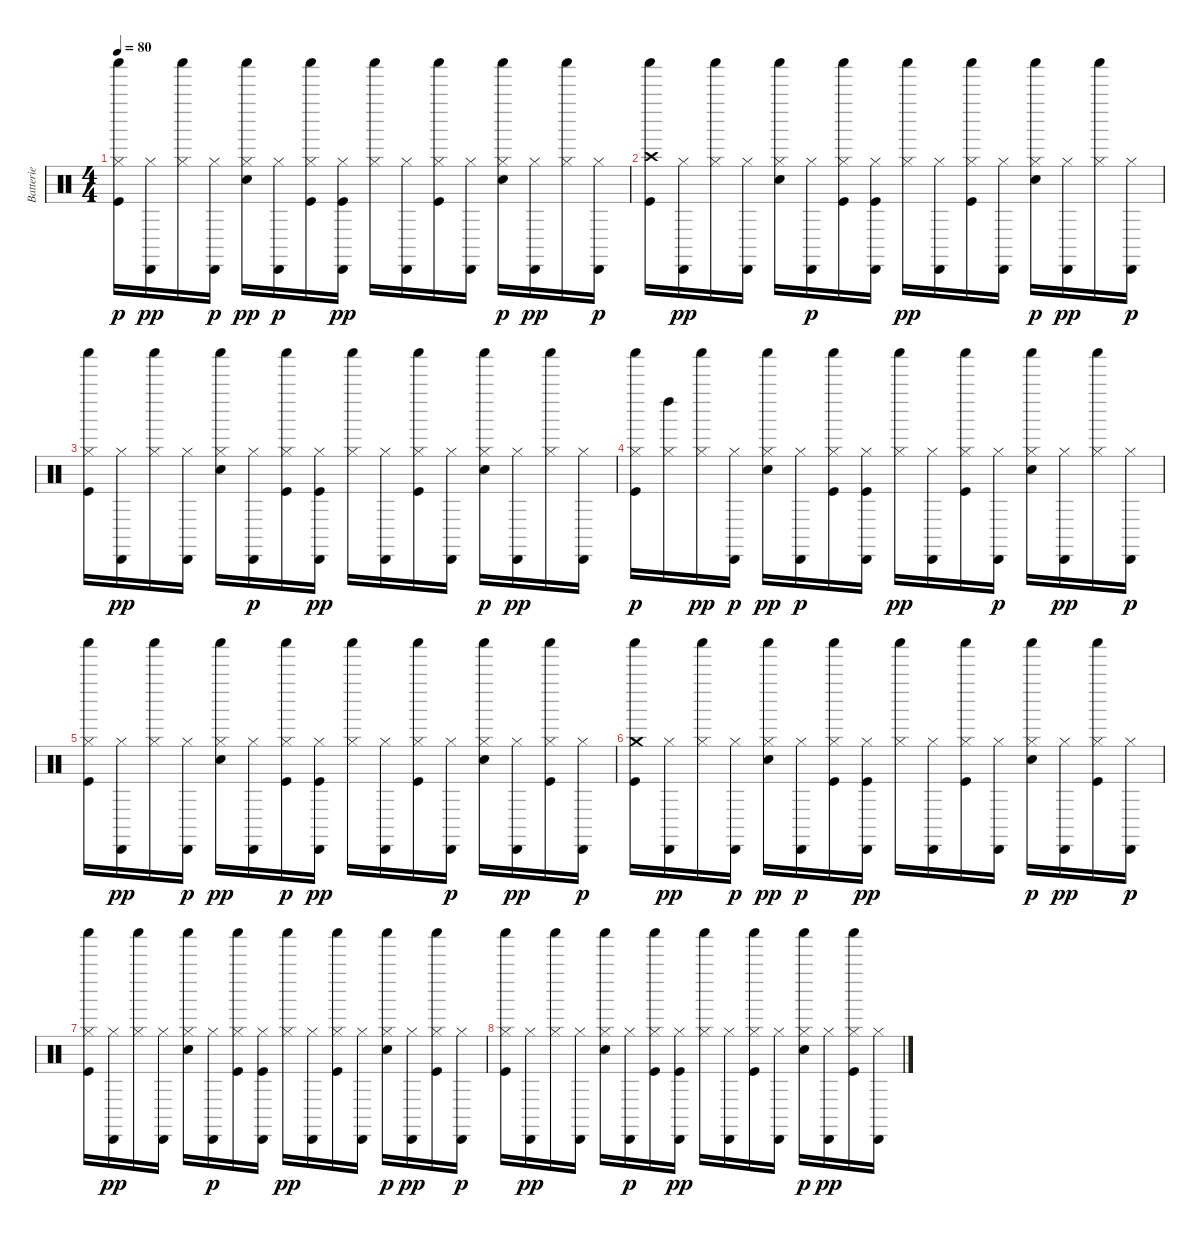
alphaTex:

\track ("Batterie" "Batterie") {instrument percussion}
\staff {score}
\articulation defaults
\ts (4 4)
\tempo 80
\clef neutral
\ks c
("Kick (hit)" "Hi-Hat (closed)" "Shaker (hit)").16{dy p} ("Cabasa (hit)" "Hi-Hat (closed)").16{dy pp} ("Hi-Hat (closed)" "Shaker (hit)").16 ("Cabasa (hit)" "Hi-Hat (closed)").16{dy p} ("Snare (hit) 2" "Hi-Hat (closed)" "Shaker (hit)").16{dy pp} ("Cabasa (hit)" "Hi-Hat (closed)").16{dy p} ("Kick (hit)" "Hi-Hat (closed)" "Shaker (hit)").16 ("Cabasa (hit)" "Kick (hit)" "Hi-Hat (closed)").16{dy pp} ("Hi-Hat (closed)" "Shaker (hit)").16 ("Cabasa (hit)" "Hi-Hat (closed)").16 ("Kick (hit)" "Hi-Hat (closed)" "Shaker (hit)").16 ("Cabasa (hit)" "Hi-Hat (closed)").16 ("Snare (hit) 2" "Hi-Hat (closed)" "Shaker (hit)").16{dy p} ("Cabasa (hit)" "Hi-Hat (closed)").16{dy pp} ("Hi-Hat (closed)" "Shaker (hit)").16 ("Cabasa (hit)" "Hi-Hat (closed)").16{dy p} |
("Kick (hit)" "Crash high (hit)" "Shaker (hit)").16 ("Cabasa (hit)" "Hi-Hat (closed)").16{dy pp} ("Hi-Hat (closed)" "Shaker (hit)").16 ("Cabasa (hit)" "Hi-Hat (closed)").16 ("Snare (hit) 2" "Hi-Hat (closed)" "Shaker (hit)").16 ("Cabasa (hit)" "Hi-Hat (closed)").16{dy p} ("Kick (hit)" "Hi-Hat (closed)" "Shaker (hit)").16 ("Cabasa (hit)" "Kick (hit)" "Hi-Hat (closed)").16 ("Hi-Hat (closed)" "Shaker (hit)").16{dy pp} ("Cabasa (hit)" "Hi-Hat (closed)").16 ("Kick (hit)" "Hi-Hat (closed)" "Shaker (hit)").16 ("Cabasa (hit)" "Hi-Hat (closed)").16 ("Snare (hit) 2" "Hi-Hat (closed)" "Shaker (hit)").16{dy p} ("Cabasa (hit)" "Hi-Hat (closed)").16{dy pp} ("Hi-Hat (closed)" "Shaker (hit)").16 ("Cabasa (hit)" "Hi-Hat (closed)").16{dy p} |
("Kick (hit)" "Hi-Hat (closed)" "Shaker (hit)").16 ("Cabasa (hit)" "Hi-Hat (closed)").16{dy pp} ("Hi-Hat (closed)" "Shaker (hit)").16 ("Cabasa (hit)" "Hi-Hat (closed)").16 ("Snare (hit) 2" "Hi-Hat (closed)" "Shaker (hit)").16 ("Cabasa (hit)" "Hi-Hat (closed)").16{dy p} ("Kick (hit)" "Hi-Hat (closed)" "Shaker (hit)").16 ("Cabasa (hit)" "Kick (hit)" "Hi-Hat (closed)").16{dy pp} ("Hi-Hat (closed)" "Shaker (hit)").16 ("Cabasa (hit)" "Hi-Hat (closed)").16 ("Kick (hit)" "Hi-Hat (closed)" "Shaker (hit)").16 ("Cabasa (hit)" "Hi-Hat (closed)").16 ("Snare (hit) 2" "Hi-Hat (closed)" "Shaker (hit)").16{dy p} ("Cabasa (hit)" "Hi-Hat (closed)").16{dy pp} ("Hi-Hat (closed)" "Shaker (hit)").16 ("Cabasa (hit)" "Hi-Hat (closed)").16 |
("Kick (hit)" "Hi-Hat (closed)" "Shaker (hit)").16{dy p} ("Hi-Hat (closed)" "Left Maraca (hit)").16 ("Hi-Hat (closed)" "Shaker (hit)").16{dy pp} ("Cabasa (hit)" "Hi-Hat (closed)").16{dy p} ("Snare (hit) 2" "Hi-Hat (closed)" "Shaker (hit)").16{dy pp} ("Cabasa (hit)" "Hi-Hat (closed)").16{dy p} ("Kick (hit)" "Hi-Hat (closed)" "Shaker (hit)").16 ("Cabasa (hit)" "Kick (hit)" "Hi-Hat (closed)").16 ("Hi-Hat (closed)" "Shaker (hit)").16{dy pp} ("Cabasa (hit)" "Hi-Hat (closed)").16 ("Kick (hit)" "Hi-Hat (closed)" "Shaker (hit)").16 ("Cabasa (hit)" "Hi-Hat (closed)").16{dy p} ("Snare (hit) 2" "Hi-Hat (closed)" "Shaker (hit)").16 ("Cabasa (hit)" "Hi-Hat (closed)").16{dy pp} ("Hi-Hat (closed)" "Shaker (hit)").16 ("Cabasa (hit)" "Hi-Hat (closed)").16{dy p} |
("Kick (hit)" "Hi-Hat (closed)" "Shaker (hit)").16 ("Cabasa (hit)" "Hi-Hat (closed)").16{dy pp} ("Hi-Hat (closed)" "Shaker (hit)").16 ("Cabasa (hit)" "Hi-Hat (closed)").16{dy p} ("Snare (hit) 2" "Hi-Hat (closed)" "Shaker (hit)").16{dy pp} ("Cabasa (hit)" "Hi-Hat (closed)").16 ("Kick (hit)" "Hi-Hat (closed)" "Shaker (hit)").16{dy p} ("Cabasa (hit)" "Kick (hit)" "Hi-Hat (closed)").16{dy pp} ("Hi-Hat (closed)" "Shaker (hit)").16 ("Cabasa (hit)" "Hi-Hat (closed)").16 ("Kick (hit)" "Hi-Hat (closed)" "Shaker (hit)").16 ("Cabasa (hit)" "Hi-Hat (closed)").16{dy p} ("Snare (hit) 2" "Hi-Hat (closed)" "Shaker (hit)").16 ("Cabasa (hit)" "Hi-Hat (closed)").16{dy pp} ("Kick (hit)" "Hi-Hat (closed)" "Shaker (hit)").16 ("Cabasa (hit)" "Hi-Hat (closed)").16{dy p} |
("Kick (hit)" "Crash medium (hit)" "Shaker (hit)").16 ("Cabasa (hit)" "Hi-Hat (closed)").16{dy pp} ("Hi-Hat (closed)" "Shaker (hit)").16 ("Cabasa (hit)" "Hi-Hat (closed)").16{dy p} ("Snare (hit) 2" "Hi-Hat (closed)" "Shaker (hit)").16{dy pp} ("Cabasa (hit)" "Hi-Hat (closed)").16{dy p} ("Kick (hit)" "Hi-Hat (closed)" "Shaker (hit)").16 ("Cabasa (hit)" "Kick (hit)" "Hi-Hat (closed)").16{dy pp} ("Hi-Hat (closed)" "Shaker (hit)").16 ("Cabasa (hit)" "Hi-Hat (closed)").16 ("Kick (hit)" "Hi-Hat (closed)" "Shaker (hit)").16 ("Cabasa (hit)" "Hi-Hat (closed)").16 ("Snare (hit) 2" "Hi-Hat (closed)" "Shaker (hit)").16{dy p} ("Cabasa (hit)" "Hi-Hat (closed)").16{dy pp} ("Kick (hit)" "Hi-Hat (closed)" "Shaker (hit)").16 ("Cabasa (hit)" "Hi-Hat (closed)").16{dy p} |
("Kick (hit)" "Hi-Hat (closed)" "Shaker (hit)").16 ("Cabasa (hit)" "Hi-Hat (closed)").16{dy pp} ("Hi-Hat (closed)" "Shaker (hit)").16 ("Cabasa (hit)" "Hi-Hat (closed)").16 ("Snare (hit) 2" "Hi-Hat (closed)" "Shaker (hit)").16 ("Cabasa (hit)" "Hi-Hat (closed)").16{dy p} ("Kick (hit)" "Hi-Hat (closed)" "Shaker (hit)").16 ("Cabasa (hit)" "Kick (hit)" "Hi-Hat (closed)").16 ("Hi-Hat (closed)" "Shaker (hit)").16{dy pp} ("Cabasa (hit)" "Hi-Hat (closed)").16 ("Kick (hit)" "Hi-Hat (closed)" "Shaker (hit)").16 ("Cabasa (hit)" "Hi-Hat (closed)").16 ("Snare (hit) 2" "Hi-Hat (closed)" "Shaker (hit)").16{dy p} ("Cabasa (hit)" "Hi-Hat (closed)").16{dy pp} ("Kick (hit)" "Hi-Hat (closed)" "Shaker (hit)").16 ("Cabasa (hit)" "Hi-Hat (closed)").16{dy p} |
("Kick (hit)" "Hi-Hat (closed)" "Shaker (hit)").16 ("Cabasa (hit)" "Hi-Hat (closed)").16{dy pp} ("Hi-Hat (closed)" "Shaker (hit)").16 ("Cabasa (hit)" "Hi-Hat (closed)").16 ("Snare (hit) 2" "Hi-Hat (closed)" "Shaker (hit)").16 ("Cabasa (hit)" "Hi-Hat (closed)").16{dy p} ("Kick (hit)" "Hi-Hat (closed)" "Shaker (hit)").16 ("Cabasa (hit)" "Kick (hit)" "Hi-Hat (closed)").16{dy pp} ("Hi-Hat (closed)" "Shaker (hit)").16 ("Cabasa (hit)" "Hi-Hat (closed)").16 ("Kick (hit)" "Hi-Hat (closed)" "Shaker (hit)").16 ("Cabasa (hit)" "Hi-Hat (closed)").16 ("Snare (hit) 2" "Hi-Hat (closed)" "Shaker (hit)").16{dy p} ("Cabasa (hit)" "Hi-Hat (closed)").16{dy pp} ("Kick (hit)" "Hi-Hat (closed)" "Shaker (hit)").16 ("Cabasa (hit)" "Hi-Hat (closed)").16
